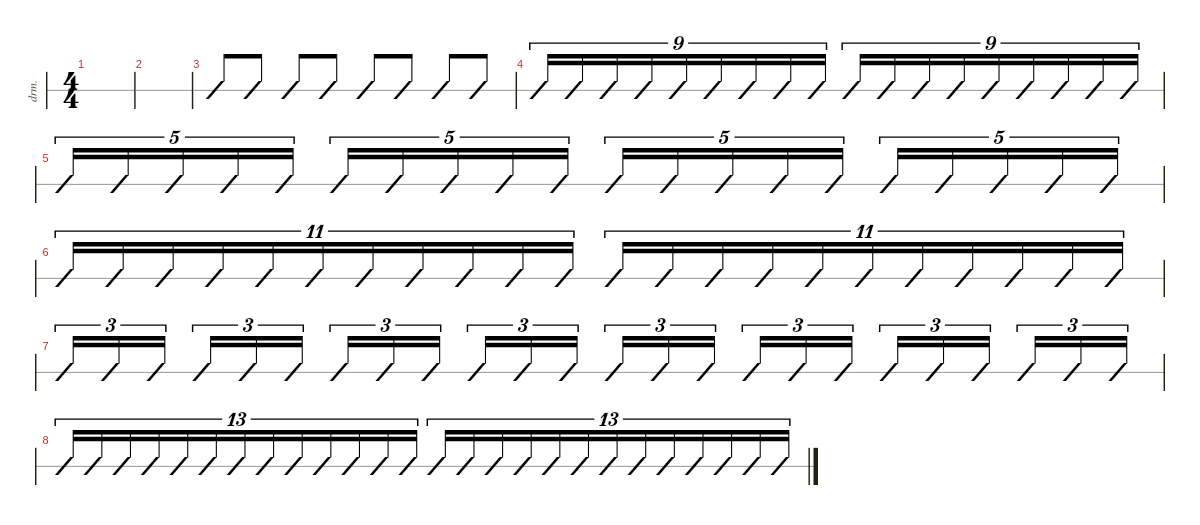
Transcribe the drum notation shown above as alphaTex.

\defaultSystemsLayout 4
\hideDynamics
\bracketExtendMode nobrackets
\otherSystemsTrackNameOrientation horizontal
\track ("Drumkit" "drm.") {defaultSystemsLayout 8 instrument percussion}
\staff {slash}
\articulation defaults
\ts (4 4)
\tempo (120 hide)
\clef neutral
\scale
1.15511
\ks c
|
\scale
0.977842 |
\scale
0.977842 "Kick (hit) 2".8 "Kick (hit) 2".8 "Kick (hit) 2".8 "Kick (hit) 2".8 "Kick (hit) 2".8 "Kick (hit) 2".8 "Kick (hit) 2".8 "Kick (hit) 2".8 |
\scale
0.977842 "Kick (hit) 2".16{tu (9 8)} "Kick (hit) 2".16{tu (9 8)} "Kick (hit) 2".16{tu (9 8)} "Kick (hit) 2".16{tu (9 8)} "Kick (hit) 2".16{tu (9 8)} "Kick (hit) 2".16{tu (9 8)} "Kick (hit) 2".16{tu (9 8)} "Kick (hit) 2".16{tu (9 8)} "Kick (hit) 2".16{tu (9 8)} "Kick (hit) 2".16{tu (9 8)} "Kick (hit) 2".16{tu (9 8)} "Kick (hit) 2".16{tu (9 8)} "Kick (hit) 2".16{tu (9 8)} "Kick (hit) 2".16{tu (9 8)} "Kick (hit) 2".16{tu (9 8)} "Kick (hit) 2".16{tu (9 8)} "Kick (hit) 2".16{tu (9 8)} "Kick (hit) 2".16{tu (9 8)} |
\scale
0.977842 "Kick (hit) 2".16{tu (5 4)} "Kick (hit) 2".16{tu (5 4)} "Kick (hit) 2".16{tu (5 4)} "Kick (hit) 2".16{tu (5 4)} "Kick (hit) 2".16{tu (5 4)} "Kick (hit) 2".16{tu (5 4)} "Kick (hit) 2".16{tu (5 4)} "Kick (hit) 2".16{tu (5 4)} "Kick (hit) 2".16{tu (5 4)} "Kick (hit) 2".16{tu (5 4)} "Kick (hit) 2".16{tu (5 4)} "Kick (hit) 2".16{tu (5 4)} "Kick (hit) 2".16{tu (5 4)} "Kick (hit) 2".16{tu (5 4)} "Kick (hit) 2".16{tu (5 4)} "Kick (hit) 2".16{tu (5 4)} "Kick (hit) 2".16{tu (5 4)} "Kick (hit) 2".16{tu (5 4)} "Kick (hit) 2".16{tu (5 4)} "Kick (hit) 2".16{tu (5 4)} |
\scale
0.977842 "Kick (hit) 2".16{tu (11 8)} "Kick (hit) 2".16{tu (11 8)} "Kick (hit) 2".16{tu (11 8)} "Kick (hit) 2".16{tu (11 8)} "Kick (hit) 2".16{tu (11 8)} "Kick (hit) 2".16{tu (11 8)} "Kick (hit) 2".16{tu (11 8)} "Kick (hit) 2".16{tu (11 8)} "Kick (hit) 2".16{tu (11 8)} "Kick (hit) 2".16{tu (11 8)} "Kick (hit) 2".16{tu (11 8)} "Kick (hit) 2".16{tu (11 8)} "Kick (hit) 2".16{tu (11 8)} "Kick (hit) 2".16{tu (11 8)} "Kick (hit) 2".16{tu (11 8)} "Kick (hit) 2".16{tu (11 8)} "Kick (hit) 2".16{tu (11 8)} "Kick (hit) 2".16{tu (11 8)} "Kick (hit) 2".16{tu (11 8)} "Kick (hit) 2".16{tu (11 8)} "Kick (hit) 2".16{tu (11 8)} "Kick (hit) 2".16{tu (11 8)} |
\scale
0.977842 "Kick (hit) 2".16{tu (3 2)} "Kick (hit) 2".16{tu (3 2)} "Kick (hit) 2".16{tu (3 2)} "Kick (hit) 2".16{tu (3 2)} "Kick (hit) 2".16{tu (3 2)} "Kick (hit) 2".16{tu (3 2)} "Kick (hit) 2".16{tu (3 2)} "Kick (hit) 2".16{tu (3 2)} "Kick (hit) 2".16{tu (3 2)} "Kick (hit) 2".16{tu (3 2)} "Kick (hit) 2".16{tu (3 2)} "Kick (hit) 2".16{tu (3 2)} "Kick (hit) 2".16{tu (3 2)} "Kick (hit) 2".16{tu (3 2)} "Kick (hit) 2".16{tu (3 2)} "Kick (hit) 2".16{tu (3 2)} "Kick (hit) 2".16{tu (3 2)} "Kick (hit) 2".16{tu (3 2)} "Kick (hit) 2".16{tu (3 2)} "Kick (hit) 2".16{tu (3 2)} "Kick (hit) 2".16{tu (3 2)} "Kick (hit) 2".16{tu (3 2)} "Kick (hit) 2".16{tu (3 2)} "Kick (hit) 2".16{tu (3 2)} |
\scale
0.977842 "Kick (hit) 2".16{tu (13 8)} "Kick (hit) 2".16{tu (13 8)} "Kick (hit) 2".16{tu (13 8)} "Kick (hit) 2".16{tu (13 8)} "Kick (hit) 2".16{tu (13 8)} "Kick (hit) 2".16{tu (13 8)} "Kick (hit) 2".16{tu (13 8)} "Kick (hit) 2".16{tu (13 8)} "Kick (hit) 2".16{tu (13 8)} "Kick (hit) 2".16{tu (13 8)} "Kick (hit) 2".16{tu (13 8)} "Kick (hit) 2".16{tu (13 8)} "Kick (hit) 2".16{tu (13 8)} "Kick (hit) 2".16{tu (13 8)} "Kick (hit) 2".16{tu (13 8)} "Kick (hit) 2".16{tu (13 8)} "Kick (hit) 2".16{tu (13 8)} "Kick (hit) 2".16{tu (13 8)} "Kick (hit) 2".16{tu (13 8)} "Kick (hit) 2".16{tu (13 8)} "Kick (hit) 2".16{tu (13 8)} "Kick (hit) 2".16{tu (13 8)} "Kick (hit) 2".16{tu (13 8)} "Kick (hit) 2".16{tu (13 8)} "Kick (hit) 2".16{tu (13 8)} "Kick (hit) 2".16{tu (13 8)}
